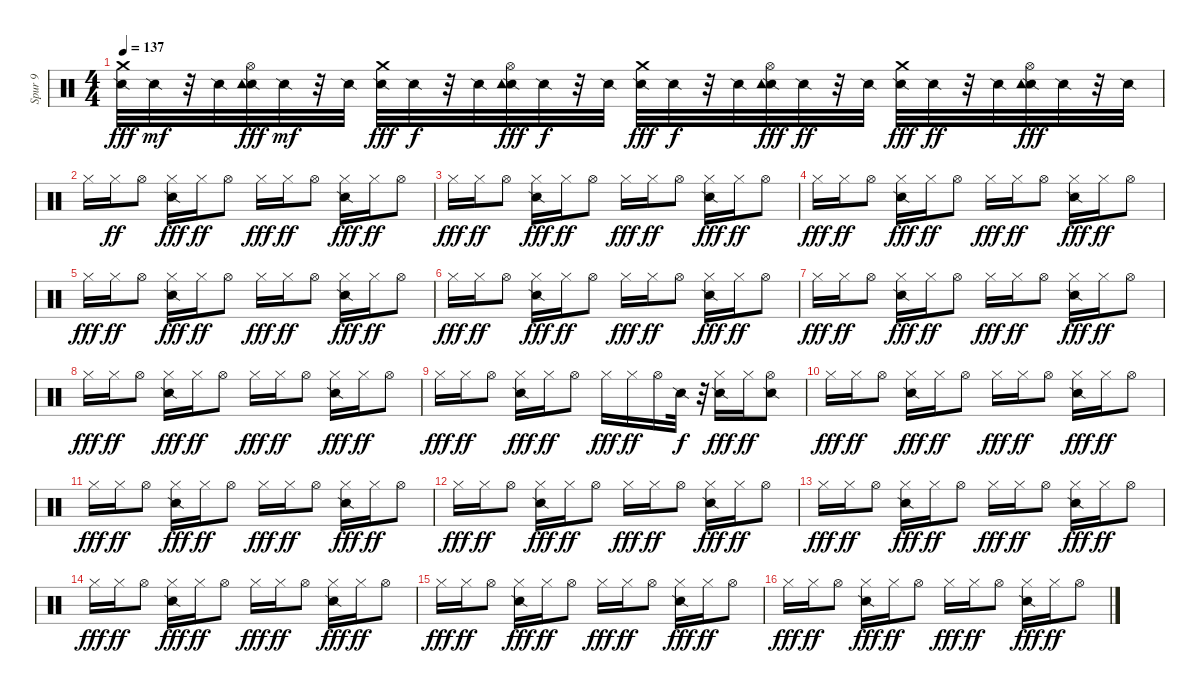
\track ("Spur 9" "Spur 9") {instrument percussion}
\staff {score}
\articulation defaults
\ts (4 4)
\tempo 137
\clef neutral
\ks c
("Snare (side stick) 2" "Crash medium (hit)").32{dy fff} "Snare (side stick) 2".32{dy mf} r.32 "Snare (side stick) 2".32 ("Snare (side stick) 2" "Hi-Hat (open)" "Tambourine (hit)").32{dy fff} "Snare (side stick) 2".32{dy mf} r.32 "Snare (side stick) 2".32 ("Snare (side stick) 2" "Crash medium (hit)").32{dy fff} "Snare (side stick) 2".32{dy f} r.32 "Snare (side stick) 2".32 ("Snare (side stick) 2" "Hi-Hat (open)" "Tambourine (hit)").32{dy fff} "Snare (side stick) 2".32{dy f} r.32 "Snare (side stick) 2".32 ("Snare (side stick) 2" "Crash medium (hit)").32{dy fff} "Snare (side stick) 2".32{dy f} r.32 "Snare (side stick) 2".32 ("Snare (side stick) 2" "Hi-Hat (open)" "Tambourine (hit)").32{dy fff} "Snare (side stick) 2".32{dy ff} r.32 "Snare (side stick) 2".32 ("Snare (side stick) 2" "Crash medium (hit)").32{dy fff} "Snare (side stick) 2".32{dy ff} r.32 "Snare (side stick) 2".32 ("Snare (side stick) 2" "Hi-Hat (open)" "Tambourine (hit)").32{dy fff} "Snare (side stick) 2".32 r.32 "Snare (side stick) 2".32 |
"Hi-Hat (closed)".16 "Hi-Hat (closed)".16{dy ff} "Hi-Hat (open)".8 ("Snare (side stick) 2" "Hi-Hat (closed)").16{dy fff} "Hi-Hat (closed)".16{dy ff} "Hi-Hat (open)".8 "Hi-Hat (closed)".16{dy fff} "Hi-Hat (closed)".16{dy ff} "Hi-Hat (open)".8 ("Snare (side stick) 2" "Hi-Hat (closed)").16{dy fff} "Hi-Hat (closed)".16{dy ff} "Hi-Hat (open)".8 |
"Hi-Hat (closed)".16{dy fff} "Hi-Hat (closed)".16{dy ff} "Hi-Hat (open)".8 ("Snare (side stick) 2" "Hi-Hat (closed)").16{dy fff} "Hi-Hat (closed)".16{dy ff} "Hi-Hat (open)".8 "Hi-Hat (closed)".16{dy fff} "Hi-Hat (closed)".16{dy ff} "Hi-Hat (open)".8 ("Snare (side stick) 2" "Hi-Hat (closed)").16{dy fff} "Hi-Hat (closed)".16{dy ff} "Hi-Hat (open)".8 |
"Hi-Hat (closed)".16{dy fff} "Hi-Hat (closed)".16{dy ff} "Hi-Hat (open)".8 ("Snare (side stick) 2" "Hi-Hat (closed)").16{dy fff} "Hi-Hat (closed)".16{dy ff} "Hi-Hat (open)".8 "Hi-Hat (closed)".16{dy fff} "Hi-Hat (closed)".16{dy ff} "Hi-Hat (open)".8 ("Snare (side stick) 2" "Hi-Hat (closed)").16{dy fff} "Hi-Hat (closed)".16{dy ff} "Hi-Hat (open)".8 |
"Hi-Hat (closed)".16{dy fff} "Hi-Hat (closed)".16{dy ff} "Hi-Hat (open)".8 ("Snare (side stick) 2" "Hi-Hat (closed)").16{dy fff} "Hi-Hat (closed)".16{dy ff} "Hi-Hat (open)".8 "Hi-Hat (closed)".16{dy fff} "Hi-Hat (closed)".16{dy ff} "Hi-Hat (open)".8 ("Snare (side stick) 2" "Hi-Hat (closed)").16{dy fff} "Hi-Hat (closed)".16{dy ff} "Hi-Hat (open)".8 |
"Hi-Hat (closed)".16{dy fff} "Hi-Hat (closed)".16{dy ff} "Hi-Hat (open)".8 ("Snare (side stick) 2" "Hi-Hat (closed)").16{dy fff} "Hi-Hat (closed)".16{dy ff} "Hi-Hat (open)".8 "Hi-Hat (closed)".16{dy fff} "Hi-Hat (closed)".16{dy ff} "Hi-Hat (open)".8 ("Snare (side stick) 2" "Hi-Hat (closed)").16{dy fff} "Hi-Hat (closed)".16{dy ff} "Hi-Hat (open)".8 |
"Hi-Hat (closed)".16{dy fff} "Hi-Hat (closed)".16{dy ff} "Hi-Hat (open)".8 ("Snare (side stick) 2" "Hi-Hat (closed)").16{dy fff} "Hi-Hat (closed)".16{dy ff} "Hi-Hat (open)".8 "Hi-Hat (closed)".16{dy fff} "Hi-Hat (closed)".16{dy ff} "Hi-Hat (open)".8 ("Snare (side stick) 2" "Hi-Hat (closed)").16{dy fff} "Hi-Hat (closed)".16{dy ff} "Hi-Hat (open)".8 |
"Hi-Hat (closed)".16{dy fff} "Hi-Hat (closed)".16{dy ff} "Hi-Hat (open)".8 ("Snare (side stick) 2" "Hi-Hat (closed)").16{dy fff} "Hi-Hat (closed)".16{dy ff} "Hi-Hat (open)".8 "Hi-Hat (closed)".16{dy fff} "Hi-Hat (closed)".16{dy ff} "Hi-Hat (open)".8 ("Snare (side stick) 2" "Hi-Hat (closed)").16{dy fff} "Hi-Hat (closed)".16{dy ff} "Hi-Hat (open)".8 |
"Hi-Hat (closed)".16{dy fff} "Hi-Hat (closed)".16{dy ff} "Hi-Hat (open)".8 ("Snare (side stick) 2" "Hi-Hat (closed)").16{dy fff} "Hi-Hat (closed)".16{dy ff} "Hi-Hat (open)".8 "Hi-Hat (closed)".16{dy fff} "Hi-Hat (closed)".16{dy ff} "Hi-Hat (open)".16 "Snare (side stick) 2".32{dy f} r.32 ("Snare (side stick) 2" "Hi-Hat (closed)").16{dy fff} "Hi-Hat (closed)".16{dy ff} ("Snare (side stick) 2" "Hi-Hat (open)").8 |
"Hi-Hat (closed)".16{dy fff} "Hi-Hat (closed)".16{dy ff} "Hi-Hat (open)".8 ("Snare (side stick) 2" "Hi-Hat (closed)").16{dy fff} "Hi-Hat (closed)".16{dy ff} "Hi-Hat (open)".8 "Hi-Hat (closed)".16{dy fff} "Hi-Hat (closed)".16{dy ff} "Hi-Hat (open)".8 ("Snare (side stick) 2" "Hi-Hat (closed)").16{dy fff} "Hi-Hat (closed)".16{dy ff} "Hi-Hat (open)".8 |
"Hi-Hat (closed)".16{dy fff} "Hi-Hat (closed)".16{dy ff} "Hi-Hat (open)".8 ("Snare (side stick) 2" "Hi-Hat (closed)").16{dy fff} "Hi-Hat (closed)".16{dy ff} "Hi-Hat (open)".8 "Hi-Hat (closed)".16{dy fff} "Hi-Hat (closed)".16{dy ff} "Hi-Hat (open)".8 ("Snare (side stick) 2" "Hi-Hat (closed)").16{dy fff} "Hi-Hat (closed)".16{dy ff} "Hi-Hat (open)".8 |
"Hi-Hat (closed)".16{dy fff} "Hi-Hat (closed)".16{dy ff} "Hi-Hat (open)".8 ("Snare (side stick) 2" "Hi-Hat (closed)").16{dy fff} "Hi-Hat (closed)".16{dy ff} "Hi-Hat (open)".8 "Hi-Hat (closed)".16{dy fff} "Hi-Hat (closed)".16{dy ff} "Hi-Hat (open)".8 ("Snare (side stick) 2" "Hi-Hat (closed)").16{dy fff} "Hi-Hat (closed)".16{dy ff} "Hi-Hat (open)".8 |
"Hi-Hat (closed)".16{dy fff} "Hi-Hat (closed)".16{dy ff} "Hi-Hat (open)".8 ("Snare (side stick) 2" "Hi-Hat (closed)").16{dy fff} "Hi-Hat (closed)".16{dy ff} "Hi-Hat (open)".8 "Hi-Hat (closed)".16{dy fff} "Hi-Hat (closed)".16{dy ff} "Hi-Hat (open)".8 ("Snare (side stick) 2" "Hi-Hat (closed)").16{dy fff} "Hi-Hat (closed)".16{dy ff} "Hi-Hat (open)".8 |
"Hi-Hat (closed)".16{dy fff} "Hi-Hat (closed)".16{dy ff} "Hi-Hat (open)".8 ("Snare (side stick) 2" "Hi-Hat (closed)").16{dy fff} "Hi-Hat (closed)".16{dy ff} "Hi-Hat (open)".8 "Hi-Hat (closed)".16{dy fff} "Hi-Hat (closed)".16{dy ff} "Hi-Hat (open)".8 ("Snare (side stick) 2" "Hi-Hat (closed)").16{dy fff} "Hi-Hat (closed)".16{dy ff} "Hi-Hat (open)".8 |
"Hi-Hat (closed)".16{dy fff} "Hi-Hat (closed)".16{dy ff} "Hi-Hat (open)".8 ("Snare (side stick) 2" "Hi-Hat (closed)").16{dy fff} "Hi-Hat (closed)".16{dy ff} "Hi-Hat (open)".8 "Hi-Hat (closed)".16{dy fff} "Hi-Hat (closed)".16{dy ff} "Hi-Hat (open)".8 ("Snare (side stick) 2" "Hi-Hat (closed)").16{dy fff} "Hi-Hat (closed)".16{dy ff} "Hi-Hat (open)".8 |
"Hi-Hat (closed)".16{dy fff} "Hi-Hat (closed)".16{dy ff} "Hi-Hat (open)".8 ("Snare (side stick) 2" "Hi-Hat (closed)").16{dy fff} "Hi-Hat (closed)".16{dy ff} "Hi-Hat (open)".8 "Hi-Hat (closed)".16{dy fff} "Hi-Hat (closed)".16{dy ff} "Hi-Hat (open)".8 ("Snare (side stick) 2" "Hi-Hat (closed)").16{dy fff} "Hi-Hat (closed)".16{dy ff} "Hi-Hat (open)".8
